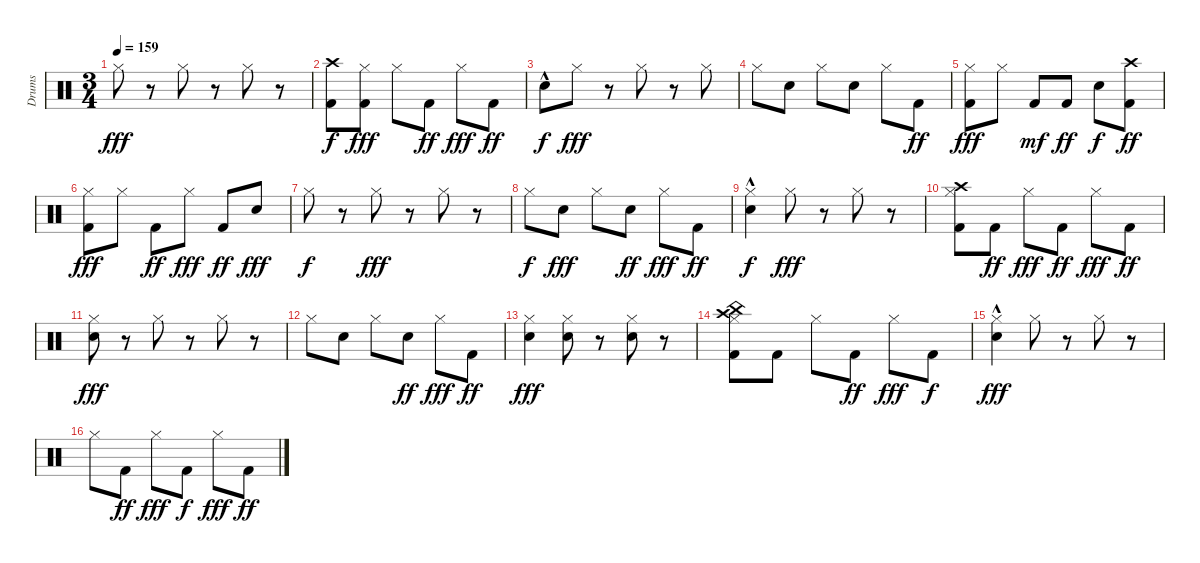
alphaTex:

\track ("Drums" "Drums") {instrument percussion}
\staff {score}
\articulation defaults
\ts (3 4)
\tempo 159
\clef neutral
\ks c "Hi-Hat (closed)".8{dy fff}
r.8 "Hi-Hat (closed)".8 r.8 "Hi-Hat (closed)".8 r.8 |
("Kick (hit) 2" "Crash high (hit)").8{dy f} ("Kick (hit) 2" "Hi-Hat (closed)").8{dy fff} "Hi-Hat (closed)".8 "Kick (hit) 2".8{dy ff} "Hi-Hat (closed)".8{dy fff} "Kick (hit) 2".8{dy ff} |
"Snare (hit) 2"{hac}.8{dy f} "Hi-Hat (closed)".8{dy fff} r.8 "Hi-Hat (closed)".8 r.8 "Hi-Hat (closed)".8 |
"Hi-Hat (closed)".8 "Snare (hit) 2".8 "Hi-Hat (closed)".8 "Snare (hit) 2".8 "Hi-Hat (closed)".8 "Kick (hit) 2".8{dy ff} |
("Hi-Hat (closed)" "Kick (hit) 2").8{dy fff} "Hi-Hat (closed)".8 "Kick (hit) 2".8{dy mf} "Kick (hit) 2".8{dy ff} "Snare (hit) 2".8{dy f} ("Kick (hit) 2" "Crash high (hit)").8{dy ff} |
("Kick (hit) 2" "Hi-Hat (closed)").8{dy fff} "Hi-Hat (closed)".8 "Kick (hit) 2".8{dy ff} "Hi-Hat (closed)".8{dy fff} "Kick (hit) 2".8{dy ff} "Snare (hit) 2".8{dy fff} |
"Hi-Hat (closed)".8{dy f} r.8 "Hi-Hat (closed)".8{dy fff} r.8 "Hi-Hat (closed)".8 r.8 |
"Hi-Hat (closed)".8{dy f} "Snare (hit) 2".8{dy fff} "Hi-Hat (closed)".8 "Snare (hit) 2".8{dy ff} "Hi-Hat (closed)".8{dy fff} "Kick (hit) 2".8{dy ff} |
("Hi-Hat (closed)"{hac} "Snare (hit) 2").4{dy f} "Hi-Hat (closed)".8{dy fff} r.8 "Hi-Hat (closed)".8 r.8 |
("Crash high (hit)" "Hi-Hat (closed)" "Kick (hit) 2").8 "Kick (hit) 2".8{dy ff} "Hi-Hat (closed)".8{dy fff} "Kick (hit) 2".8{dy ff} "Hi-Hat (closed)".8{dy fff} "Kick (hit) 2".8{dy ff} |
("Hi-Hat (closed)" "Snare (hit) 2").8{dy fff} r.8 "Hi-Hat (closed)".8 r.8 "Hi-Hat (closed)".8 r.8 |
"Hi-Hat (closed)".8 "Snare (hit) 2".8 "Hi-Hat (closed)".8 "Snare (hit) 2".8{dy ff} "Hi-Hat (closed)".8{dy fff} "Kick (hit) 2".8{dy ff} |
("Snare (hit) 2" "Hi-Hat (closed)").4{dy fff} ("Hi-Hat (closed)" "Snare (hit) 2").8 r.8 ("Hi-Hat (closed)" "Snare (hit) 2").8 r.8 |
("Hi-Hat (closed)" "Kick (hit) 2" "Crash high (hit)" "China (hit)").8 "Kick (hit) 2".8 "Hi-Hat (closed)".8 "Kick (hit) 2".8{dy ff} "Hi-Hat (closed)".8{dy fff} "Kick (hit) 2".8{dy f} |
("Hi-Hat (closed)" "Snare (hit) 2"{hac}).4{dy fff} "Hi-Hat (closed)".8 r.8 "Hi-Hat (closed)".8 r.8 |
"Hi-Hat (closed)".8 "Kick (hit) 2".8{dy ff} "Hi-Hat (closed)".8{dy fff} "Kick (hit) 2".8{dy f} "Hi-Hat (closed)".8{dy fff} "Kick (hit) 2".8{dy ff}
